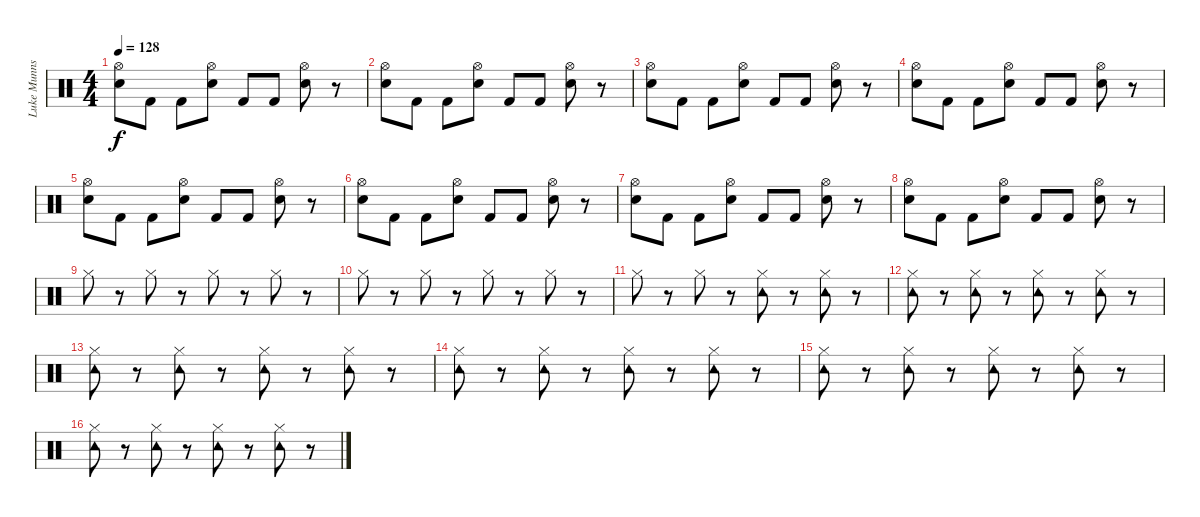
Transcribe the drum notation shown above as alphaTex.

\track ("Luke Munns" "Luke Munns") {instrument percussion}
\staff {score}
\articulation defaults
\ts (4 4)
\tempo 128
\clef neutral
\ks c
("Electric Snare (hit)" "Hi-Hat (open)").8{dy f} "Kick (hit) 2".8 "Kick (hit) 2".8 ("Electric Snare (hit)" "Hi-Hat (open)").8 "Kick (hit) 2".8 "Kick (hit) 2".8 ("Electric Snare (hit)" "Hi-Hat (open)").8 r.8 |
("Electric Snare (hit)" "Hi-Hat (open)").8 "Kick (hit) 2".8 "Kick (hit) 2".8 ("Electric Snare (hit)" "Hi-Hat (open)").8 "Kick (hit) 2".8 "Kick (hit) 2".8 ("Electric Snare (hit)" "Hi-Hat (open)").8 r.8 |
("Electric Snare (hit)" "Hi-Hat (open)").8 "Kick (hit) 2".8 "Kick (hit) 2".8 ("Electric Snare (hit)" "Hi-Hat (open)").8 "Kick (hit) 2".8 "Kick (hit) 2".8 ("Electric Snare (hit)" "Hi-Hat (open)").8 r.8 |
("Electric Snare (hit)" "Hi-Hat (open)").8 "Kick (hit) 2".8 "Kick (hit) 2".8 ("Electric Snare (hit)" "Hi-Hat (open)").8 "Kick (hit) 2".8 "Kick (hit) 2".8 ("Electric Snare (hit)" "Hi-Hat (open)").8 r.8 |
("Electric Snare (hit)" "Hi-Hat (open)").8 "Kick (hit) 2".8 "Kick (hit) 2".8 ("Electric Snare (hit)" "Hi-Hat (open)").8 "Kick (hit) 2".8 "Kick (hit) 2".8 ("Electric Snare (hit)" "Hi-Hat (open)").8 r.8 |
("Electric Snare (hit)" "Hi-Hat (open)").8 "Kick (hit) 2".8 "Kick (hit) 2".8 ("Electric Snare (hit)" "Hi-Hat (open)").8 "Kick (hit) 2".8 "Kick (hit) 2".8 ("Electric Snare (hit)" "Hi-Hat (open)").8 r.8 |
("Electric Snare (hit)" "Hi-Hat (open)").8 "Kick (hit) 2".8 "Kick (hit) 2".8 ("Electric Snare (hit)" "Hi-Hat (open)").8 "Kick (hit) 2".8 "Kick (hit) 2".8 ("Electric Snare (hit)" "Hi-Hat (open)").8 r.8 |
("Electric Snare (hit)" "Hi-Hat (open)").8 "Kick (hit) 2".8 "Kick (hit) 2".8 ("Electric Snare (hit)" "Hi-Hat (open)").8 "Kick (hit) 2".8 "Kick (hit) 2".8 ("Electric Snare (hit)" "Hi-Hat (open)").8 r.8 |
"Hi-Hat (closed)".8 r.8 "Hi-Hat (closed)".8 r.8 "Hi-Hat (closed)".8 r.8 "Hi-Hat (closed)".8 r.8 |
"Hi-Hat (closed)".8 r.8 "Hi-Hat (closed)".8 r.8 "Hi-Hat (closed)".8 r.8 "Hi-Hat (closed)".8 r.8 |
"Hi-Hat (closed)".8 r.8 "Hi-Hat (closed)".8 r.8 ("Hi-Hat (closed)" "Tambourine (hit)").8 r.8 ("Hi-Hat (closed)" "Tambourine (hit)").8 r.8 |
("Hi-Hat (closed)" "Tambourine (hit)").8 r.8 ("Hi-Hat (closed)" "Tambourine (hit)").8 r.8 ("Hi-Hat (closed)" "Tambourine (hit)").8 r.8 ("Hi-Hat (closed)" "Tambourine (hit)").8 r.8 |
("Hi-Hat (closed)" "Tambourine (hit)").8 r.8 ("Hi-Hat (closed)" "Tambourine (hit)").8 r.8 ("Hi-Hat (closed)" "Tambourine (hit)").8 r.8 ("Hi-Hat (closed)" "Tambourine (hit)").8 r.8 |
("Hi-Hat (closed)" "Tambourine (hit)").8 r.8 ("Hi-Hat (closed)" "Tambourine (hit)").8 r.8 ("Hi-Hat (closed)" "Tambourine (hit)").8 r.8 ("Hi-Hat (closed)" "Tambourine (hit)").8 r.8 |
("Hi-Hat (closed)" "Tambourine (hit)").8 r.8 ("Hi-Hat (closed)" "Tambourine (hit)").8 r.8 ("Hi-Hat (closed)" "Tambourine (hit)").8 r.8 ("Hi-Hat (closed)" "Tambourine (hit)").8 r.8 |
("Hi-Hat (closed)" "Tambourine (hit)").8 r.8 ("Hi-Hat (closed)" "Tambourine (hit)").8 r.8 ("Hi-Hat (closed)" "Tambourine (hit)").8 r.8 ("Hi-Hat (closed)" "Tambourine (hit)").8 r.8
